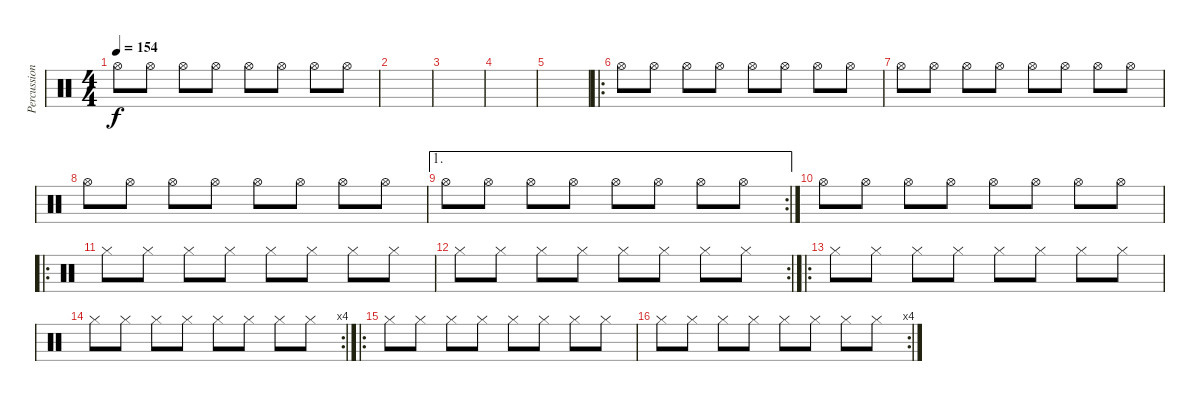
\track ("Percussions" "Percussion") {instrument percussion}
\staff {score}
\articulation defaults
\ts (4 4)
\tempo 154
\clef neutral
\ks c "Hi-Hat (open)".8{dy f} "Hi-Hat (open)".8 "Hi-Hat (open)".8 "Hi-Hat (open)".8 "Hi-Hat (open)".8 "Hi-Hat (open)".8 "Hi-Hat (open)".8 "Hi-Hat (open)".8
|
|
|
|
|
\ro "Hi-Hat (open)".8 "Hi-Hat (open)".8 "Hi-Hat (open)".8 "Hi-Hat (open)".8 "Hi-Hat (open)".8 "Hi-Hat (open)".8 "Hi-Hat (open)".8 "Hi-Hat (open)".8
|
"Hi-Hat (open)".8 "Hi-Hat (open)".8 "Hi-Hat (open)".8 "Hi-Hat (open)".8 "Hi-Hat (open)".8 "Hi-Hat (open)".8 "Hi-Hat (open)".8 "Hi-Hat (open)".8 |
"Hi-Hat (open)".8 "Hi-Hat (open)".8 "Hi-Hat (open)".8 "Hi-Hat (open)".8 "Hi-Hat (open)".8 "Hi-Hat (open)".8 "Hi-Hat (open)".8 "Hi-Hat (open)".8 |
\ae 1
\rc 2 "Hi-Hat (open)".8 "Hi-Hat (open)".8 "Hi-Hat (open)".8 "Hi-Hat (open)".8 "Hi-Hat (open)".8 "Hi-Hat (open)".8 "Hi-Hat (open)".8 "Hi-Hat (open)".8
|
"Hi-Hat (open)".8 "Hi-Hat (open)".8 "Hi-Hat (open)".8 "Hi-Hat (open)".8 "Hi-Hat (open)".8 "Hi-Hat (open)".8 "Hi-Hat (open)".8 "Hi-Hat (open)".8 |
\ro "Hi-Hat (closed)".8 "Hi-Hat (closed)".8 "Hi-Hat (closed)".8 "Hi-Hat (closed)".8 "Hi-Hat (closed)".8 "Hi-Hat (closed)".8 "Hi-Hat (closed)".8 "Hi-Hat (closed)".8
|
\rc 2 "Hi-Hat (closed)".8 "Hi-Hat (closed)".8 "Hi-Hat (closed)".8 "Hi-Hat (closed)".8 "Hi-Hat (closed)".8 "Hi-Hat (closed)".8 "Hi-Hat (closed)".8 "Hi-Hat (closed)".8
|
\ro "Hi-Hat (closed)".8 "Hi-Hat (closed)".8 "Hi-Hat (closed)".8 "Hi-Hat (closed)".8 "Hi-Hat (closed)".8 "Hi-Hat (closed)".8 "Hi-Hat (closed)".8 "Hi-Hat (closed)".8
|
\rc 4 "Hi-Hat (closed)".8 "Hi-Hat (closed)".8 "Hi-Hat (closed)".8 "Hi-Hat (closed)".8 "Hi-Hat (closed)".8 "Hi-Hat (closed)".8 "Hi-Hat (closed)".8 "Hi-Hat (closed)".8
|
\ro "Hi-Hat (closed)".8 "Hi-Hat (closed)".8 "Hi-Hat (closed)".8 "Hi-Hat (closed)".8 "Hi-Hat (closed)".8 "Hi-Hat (closed)".8 "Hi-Hat (closed)".8 "Hi-Hat (closed)".8
|
\rc 4 "Hi-Hat (closed)".8 "Hi-Hat (closed)".8 "Hi-Hat (closed)".8 "Hi-Hat (closed)".8 "Hi-Hat (closed)".8 "Hi-Hat (closed)".8 "Hi-Hat (closed)".8 "Hi-Hat (closed)".8
